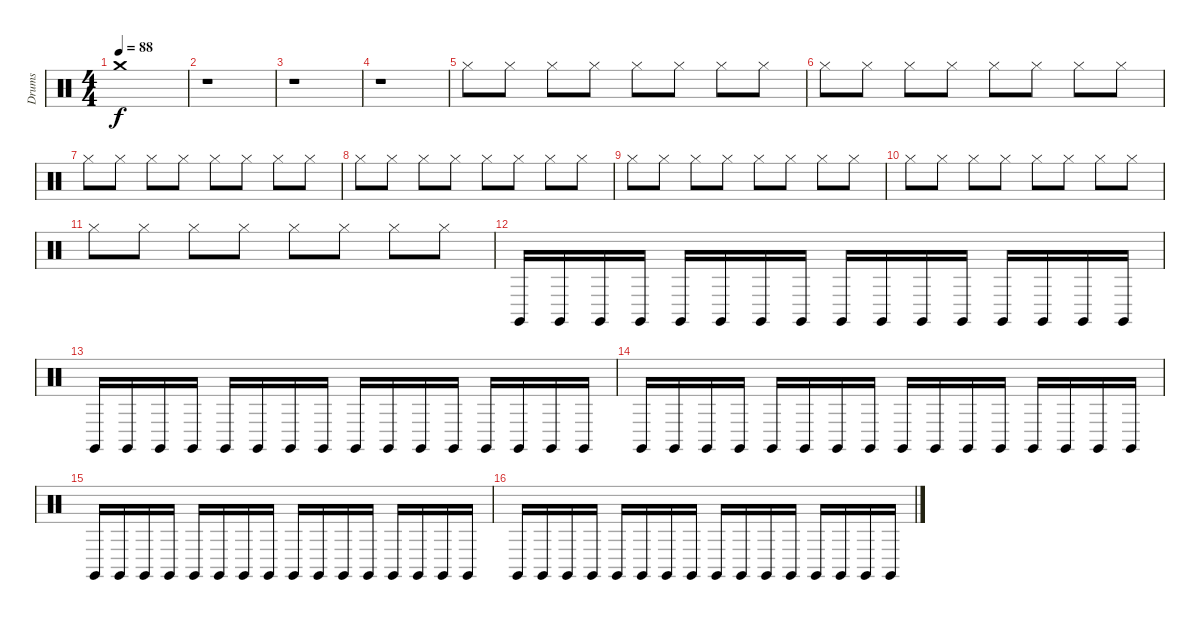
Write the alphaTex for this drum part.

\track ("Drums" "Drums") {instrument percussion}
\staff {score}
\articulation defaults
\ts (4 4)
\tempo 88
\clef neutral
\ks c "Crash medium (hit)".1{dy f}
|
r.1 |
r.1 |
r.1 |
"Hi-Hat (closed)".8 "Hi-Hat (closed)".8 "Hi-Hat (closed)".8 "Hi-Hat (closed)".8 "Hi-Hat (closed)".8 "Hi-Hat (closed)".8 "Hi-Hat (closed)".8 "Hi-Hat (closed)".8 |
"Hi-Hat (closed)".8 "Hi-Hat (closed)".8 "Hi-Hat (closed)".8 "Hi-Hat (closed)".8 "Hi-Hat (closed)".8 "Hi-Hat (closed)".8 "Hi-Hat (closed)".8 "Hi-Hat (closed)".8 |
"Hi-Hat (closed)".8 "Hi-Hat (closed)".8 "Hi-Hat (closed)".8 "Hi-Hat (closed)".8 "Hi-Hat (closed)".8 "Hi-Hat (closed)".8 "Hi-Hat (closed)".8 "Hi-Hat (closed)".8 |
"Hi-Hat (closed)".8 "Hi-Hat (closed)".8 "Hi-Hat (closed)".8 "Hi-Hat (closed)".8 "Hi-Hat (closed)".8 "Hi-Hat (closed)".8 "Hi-Hat (closed)".8 "Hi-Hat (closed)".8 |
"Hi-Hat (closed)".8 "Hi-Hat (closed)".8 "Hi-Hat (closed)".8 "Hi-Hat (closed)".8 "Hi-Hat (closed)".8 "Hi-Hat (closed)".8 "Hi-Hat (closed)".8 "Hi-Hat (closed)".8 |
"Hi-Hat (closed)".8 "Hi-Hat (closed)".8 "Hi-Hat (closed)".8 "Hi-Hat (closed)".8 "Hi-Hat (closed)".8 "Hi-Hat (closed)".8 "Hi-Hat (closed)".8 "Hi-Hat (closed)".8 |
"Hi-Hat (closed)".8 "Hi-Hat (closed)".8 "Hi-Hat (closed)".8 "Hi-Hat (closed)".8 "Hi-Hat (closed)".8 "Hi-Hat (closed)".8 "Hi-Hat (closed)".8 "Hi-Hat (closed)".8 |
"Claves (hit)".16 "Claves (hit)".16 "Claves (hit)".16 "Claves (hit)".16 "Claves (hit)".16 "Claves (hit)".16 "Claves (hit)".16 "Claves (hit)".16 "Claves (hit)".16 "Claves (hit)".16 "Claves (hit)".16 "Claves (hit)".16 "Claves (hit)".16 "Claves (hit)".16 "Claves (hit)".16 "Claves (hit)".16 |
"Claves (hit)".16 "Claves (hit)".16 "Claves (hit)".16 "Claves (hit)".16 "Claves (hit)".16 "Claves (hit)".16 "Claves (hit)".16 "Claves (hit)".16 "Claves (hit)".16 "Claves (hit)".16 "Claves (hit)".16 "Claves (hit)".16 "Claves (hit)".16 "Claves (hit)".16 "Claves (hit)".16 "Claves (hit)".16 |
"Claves (hit)".16 "Claves (hit)".16 "Claves (hit)".16 "Claves (hit)".16 "Claves (hit)".16 "Claves (hit)".16 "Claves (hit)".16 "Claves (hit)".16 "Claves (hit)".16 "Claves (hit)".16 "Claves (hit)".16 "Claves (hit)".16 "Claves (hit)".16 "Claves (hit)".16 "Claves (hit)".16 "Claves (hit)".16 |
"Claves (hit)".16 "Claves (hit)".16 "Claves (hit)".16 "Claves (hit)".16 "Claves (hit)".16 "Claves (hit)".16 "Claves (hit)".16 "Claves (hit)".16 "Claves (hit)".16 "Claves (hit)".16 "Claves (hit)".16 "Claves (hit)".16 "Claves (hit)".16 "Claves (hit)".16 "Claves (hit)".16 "Claves (hit)".16 |
"Claves (hit)".16 "Claves (hit)".16 "Claves (hit)".16 "Claves (hit)".16 "Claves (hit)".16 "Claves (hit)".16 "Claves (hit)".16 "Claves (hit)".16 "Claves (hit)".16 "Claves (hit)".16 "Claves (hit)".16 "Claves (hit)".16 "Claves (hit)".16 "Claves (hit)".16 "Claves (hit)".16 "Claves (hit)".16
